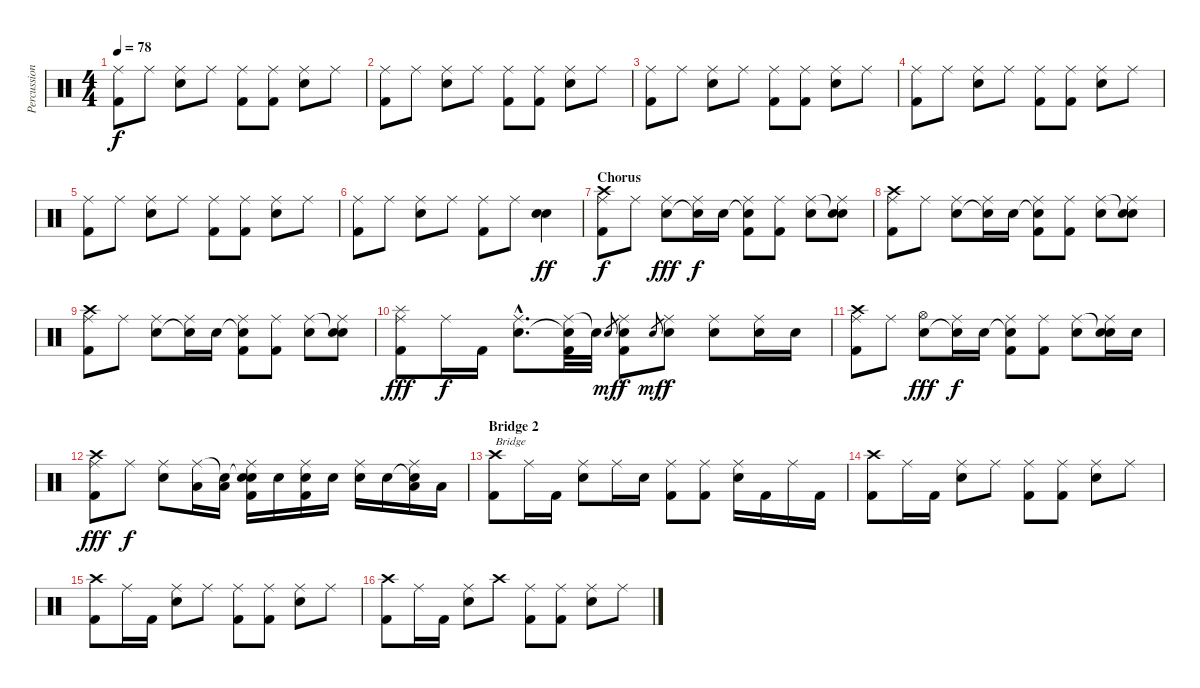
\track ("Percussion" "Percussion") {instrument percussion}
\staff {score}
\articulation defaults
\ts (4 4)
\tempo 78
\clef neutral
\ks c
("Ride (middle)" "Kick (hit) 2").8{dy f volume 9} "Ride (middle)".8 ("Ride (middle)" "Electric Snare (hit)").8 "Ride (middle)".8 ("Ride (middle)" "Kick (hit) 2").8 ("Ride (middle)" "Kick (hit) 2").8 ("Ride (middle)" "Electric Snare (hit)").8 "Ride (middle)".8 |
("Ride (middle)" "Kick (hit) 2").8{volume 9} "Ride (middle)".8 ("Ride (middle)" "Electric Snare (hit)").8 "Ride (middle)".8 ("Ride (middle)" "Kick (hit) 2").8 ("Ride (middle)" "Kick (hit) 2").8 ("Ride (middle)" "Electric Snare (hit)").8 "Ride (middle)".8 |
("Ride (middle)" "Kick (hit) 2").8{volume 9} "Ride (middle)".8 ("Ride (middle)" "Electric Snare (hit)").8 "Ride (middle)".8 ("Ride (middle)" "Kick (hit) 2").8 ("Ride (middle)" "Kick (hit) 2").8 ("Ride (middle)" "Electric Snare (hit)").8 "Ride (middle)".8 |
("Ride (middle)" "Kick (hit) 2").8{volume 9} "Ride (middle)".8 ("Ride (middle)" "Electric Snare (hit)").8 "Ride (middle)".8 ("Ride (middle)" "Kick (hit) 2").8 ("Ride (middle)" "Kick (hit) 2").8 ("Ride (middle)" "Electric Snare (hit)").8 "Ride (middle)".8 |
("Ride (middle)" "Kick (hit) 2").8{volume 9} "Ride (middle)".8 ("Ride (middle)" "Electric Snare (hit)").8 "Ride (middle)".8 ("Ride (middle)" "Kick (hit) 2").8 ("Ride (middle)" "Kick (hit) 2").8 ("Ride (middle)" "Electric Snare (hit)").8 "Ride (middle)".8 |
("Ride (middle)" "Kick (hit) 2").8{volume 9} "Ride (middle)".8 ("Ride (middle)" "Electric Snare (hit)").8 "Ride (middle)".8 ("Ride (middle)" "Kick (hit) 2").8 "Ride (middle)".8 ("Electric Snare (hit)" "Electric Snare (hit)").4{bd 30 dy ff volume 13} |
\section ("" "Chorus")
("Crash high (hit)" "Ride (middle)" "Kick (hit) 2").8{dy f volume 13} "Ride (middle)".8 ("Ride (middle)" "Electric Snare (hit)").8{dy fff} ("Ride (middle)" "Snare (hit)"{t}).16{dy f} "Snare (hit) 2".16 ("Snare (hit)"{t} "Ride (middle)" "Kick (hit) 2").8 ("Ride (middle)" "Kick (hit) 2").8 ("Ride (middle)" "Electric Snare (hit)").8 ("Snare (hit)"{t} "Ride (middle)" "Electric Snare (hit)").8 |
("Crash high (hit)" "Ride (middle)" "Kick (hit) 2").8 "Ride (middle)".8 ("Ride (middle)" "Electric Snare (hit)").8 ("Ride (middle)" "Snare (hit)"{t}).16 "Snare (hit) 2".16 ("Snare (hit)"{t} "Ride (middle)" "Kick (hit) 2").8 ("Ride (middle)" "Kick (hit) 2").8 ("Ride (middle)" "Electric Snare (hit)").8 ("Snare (hit)"{t} "Ride (middle)" "Electric Snare (hit)").8 |
("Crash high (hit)" "Ride (middle)" "Kick (hit) 2").8 "Ride (middle)".8 ("Ride (middle)" "Electric Snare (hit)").8 ("Ride (middle)" "Snare (hit)"{t}).16 "Snare (hit) 2".16 ("Snare (hit)"{t} "Ride (middle)" "Kick (hit) 2").8 ("Ride (middle)" "Kick (hit) 2").8 ("Ride (middle)" "Electric Snare (hit)").8 ("Snare (hit)"{t} "Ride (middle)" "Electric Snare (hit)").8 |
("Splash (hit)" "Ride (middle)" "Kick (hit) 2").8{dy fff} "Ride (middle)".16{dy f} "Kick (hit) 2".16 ("Ride (middle)"{hac} "Electric Snare (hit)"{hac}).8{d} ("Ride (middle)" "Snare (hit)"{t} "Kick (hit) 2").32 "Snare (hit)"{t}.32 "Electric Snare (hit)".8{gr dy mf} ("Ride (middle)" "Electric Snare (hit)" "Kick (hit) 2").8{dy f} "Electric Snare (hit)".8{gr dy mf} ("Ride (middle)" "Electric Snare (hit)").8{dy f} ("Ride (middle)" "Electric Snare (hit)").8 ("Ride (middle)" "Electric Snare (hit)").16 "Electric Snare (hit)".16 |
("Crash high (hit)" "Ride (middle)" "Kick (hit) 2").8 "Ride (middle)".8 ("Hi-Hat (open)" "Electric Snare (hit)").8{dy fff} ("Ride (middle)" "Snare (hit)"{t}).16{dy f} "Snare (hit) 2".16 ("Snare (hit)"{t} "Ride (middle)" "Kick (hit) 2").8 ("Ride (middle)" "Kick (hit) 2").8 ("Ride (middle)" "Electric Snare (hit)").8 ("Snare (hit)"{t} "Ride (middle)" "Electric Snare (hit)").16 "Electric Snare (hit)".16 |
("Crash high (hit)" "Ride (middle)" "Kick (hit) 2").8{dy fff} "Ride (middle)".8{dy f} ("Ride (middle)" "Electric Snare (hit)").8 ("Ride (middle)" "Low Tom (hit)").16 ("Snare (hit)"{t} "Low Tom (hit)").16 ("Snare (hit)"{t} "Ride (middle)" "Electric Snare (hit)" "Kick (hit) 2").16 "Electric Snare (hit)".16 ("Ride (middle)" "Snare (hit) 2" "Kick (hit) 2").16 "Snare (hit) 2".16 ("Ride (middle)" "Electric Snare (hit)").16 "Electric Snare (hit)".16 ("Snare (hit)"{t} "Ride (middle)" "Low Tom (hit)").16 "Low Tom (hit)".16 |
\section ("" "Bridge 2")
("Crash high (hit)" "Kick (hit) 2").8{txt "Bridge"} "Ride (middle)".16 "Kick (hit) 2".16 ("Ride (middle)" "Electric Snare (hit)").8 "Ride (middle)".16 "Electric Snare (hit)".16 ("Ride (middle)" "Kick (hit) 2").8 ("Ride (middle)" "Kick (hit) 2").8 ("Ride (middle)" "Electric Snare (hit)").16 "Kick (hit) 2".16 "Ride (middle)".16 "Kick (hit) 2".16 |
("Crash high (hit)" "Kick (hit) 2").8 "Ride (middle)".16 "Kick (hit) 2".16 ("Ride (middle)" "Electric Snare (hit)").8 "Ride (middle)".8 ("Ride (middle)" "Kick (hit) 2").8 ("Ride (middle)" "Kick (hit) 2").8 ("Ride (middle)" "Electric Snare (hit)").8 "Ride (middle)".8 |
("Crash high (hit)" "Kick (hit) 2").8 "Ride (middle)".16 "Kick (hit) 2".16 ("Ride (middle)" "Electric Snare (hit)").8 "Ride (middle)".8 ("Ride (middle)" "Kick (hit) 2").8 ("Ride (middle)" "Kick (hit) 2").8 ("Ride (middle)" "Electric Snare (hit)").8 "Ride (middle)".8 |
("Crash high (hit)" "Kick (hit) 2").8 "Ride (middle)".16 "Kick (hit) 2".16 ("Ride (middle)" "Electric Snare (hit)").8 "Crash high (hit)".8 ("Ride (middle)" "Kick (hit) 2").8 ("Ride (middle)" "Kick (hit) 2").8 ("Ride (middle)" "Electric Snare (hit)").8 "Ride (middle)".8
